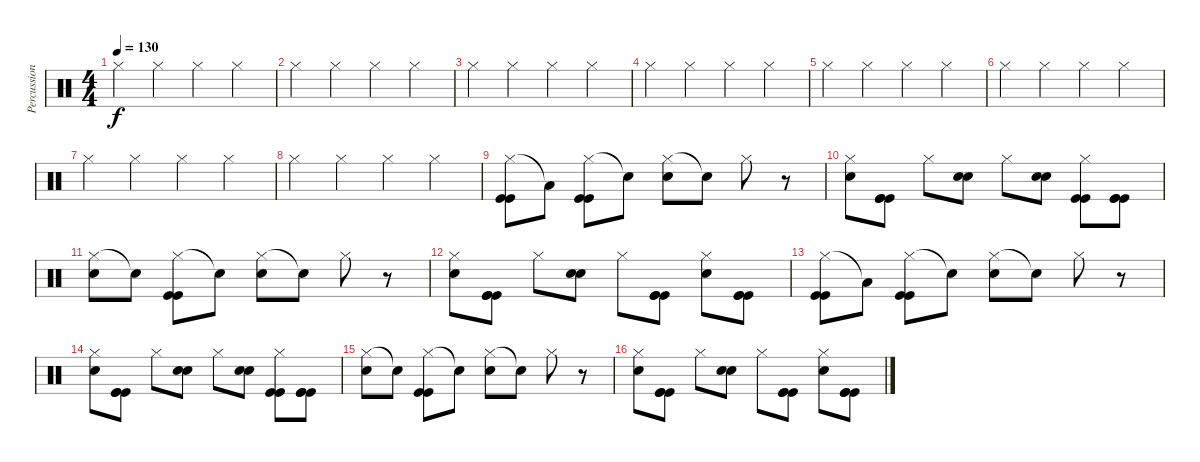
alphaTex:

\track ("Percussion" "Percussion") {instrument percussion}
\staff {score}
\articulation defaults
\ts (4 4)
\tempo 130
\clef neutral
\ks c "Hi-Hat (closed)".4{dy f} "Hi-Hat (closed)".4 "Hi-Hat (closed)".4 "Hi-Hat (closed)".4
|
"Hi-Hat (closed)".4 "Hi-Hat (closed)".4 "Hi-Hat (closed)".4 "Hi-Hat (closed)".4 |
"Hi-Hat (closed)".4 "Hi-Hat (closed)".4 "Hi-Hat (closed)".4 "Hi-Hat (closed)".4 |
"Hi-Hat (closed)".4 "Hi-Hat (closed)".4 "Hi-Hat (closed)".4 "Hi-Hat (closed)".4 |
"Hi-Hat (closed)".4 "Hi-Hat (closed)".4 "Hi-Hat (closed)".4 "Hi-Hat (closed)".4 |
"Hi-Hat (closed)".4 "Hi-Hat (closed)".4 "Hi-Hat (closed)".4 "Hi-Hat (closed)".4 |
"Hi-Hat (closed)".4 "Hi-Hat (closed)".4 "Hi-Hat (closed)".4 "Hi-Hat (closed)".4 |
"Hi-Hat (closed)".4 "Hi-Hat (closed)".4 "Hi-Hat (closed)".4 "Hi-Hat (closed)".4 |
("Hi-Hat (closed)" "Kick (hit)" "Kick (hit)").8 "Low Tom (hit)"{t}.8 ("Hi-Hat (closed)" "Kick (hit)" "Kick (hit)").8 "Snare (hit)"{t}.8 ("Hi-Hat (closed)" "Electric Snare (hit)").8 "Snare (hit)"{t}.8 "Hi-Hat (closed)".8 r.8 |
("Hi-Hat (closed)" "Electric Snare (hit)").8 ("Kick (hit)" "Kick (hit)" "Kick (hit)").8 "Hi-Hat (closed)".8 ("Electric Snare (hit)" "Electric Snare (hit)").8 "Hi-Hat (closed)".8 ("Electric Snare (hit)" "Electric Snare (hit)").8 ("Hi-Hat (closed)" "Kick (hit)" "Kick (hit)").8 ("Kick (hit)" "Kick (hit)" "Kick (hit)").8 |
("Hi-Hat (closed)" "Electric Snare (hit)").8 "Snare (hit)"{t}.8 ("Hi-Hat (closed)" "Kick (hit)" "Kick (hit)").8 "Snare (hit)"{t}.8 ("Hi-Hat (closed)" "Electric Snare (hit)").8 "Snare (hit)"{t}.8 "Hi-Hat (closed)".8 r.8 |
("Hi-Hat (closed)" "Electric Snare (hit)").8 ("Kick (hit)" "Kick (hit)" "Kick (hit)").8 "Hi-Hat (closed)".8 ("Electric Snare (hit)" "Electric Snare (hit)").8 "Hi-Hat (closed)".8 ("Kick (hit)" "Kick (hit)" "Kick (hit)").8 ("Hi-Hat (closed)" "Electric Snare (hit)").8 ("Kick (hit)" "Kick (hit)" "Kick (hit)").8 |
("Hi-Hat (closed)" "Kick (hit)" "Kick (hit)").8 "Low Tom (hit)"{t}.8 ("Hi-Hat (closed)" "Kick (hit)" "Kick (hit)").8 "Snare (hit)"{t}.8 ("Hi-Hat (closed)" "Electric Snare (hit)").8 "Snare (hit)"{t}.8 "Hi-Hat (closed)".8 r.8 |
("Hi-Hat (closed)" "Electric Snare (hit)").8 ("Kick (hit)" "Kick (hit)" "Kick (hit)").8 "Hi-Hat (closed)".8 ("Electric Snare (hit)" "Electric Snare (hit)").8 "Hi-Hat (closed)".8 ("Electric Snare (hit)" "Electric Snare (hit)").8 ("Hi-Hat (closed)" "Kick (hit)" "Kick (hit)").8 ("Kick (hit)" "Kick (hit)" "Kick (hit)").8 |
("Hi-Hat (closed)" "Electric Snare (hit)").8 "Snare (hit)"{t}.8 ("Hi-Hat (closed)" "Kick (hit)" "Kick (hit)").8 "Snare (hit)"{t}.8 ("Hi-Hat (closed)" "Electric Snare (hit)").8 "Snare (hit)"{t}.8 "Hi-Hat (closed)".8 r.8 |
("Hi-Hat (closed)" "Electric Snare (hit)").8 ("Kick (hit)" "Kick (hit)" "Kick (hit)").8 "Hi-Hat (closed)".8 ("Electric Snare (hit)" "Electric Snare (hit)").8 "Hi-Hat (closed)".8 ("Kick (hit)" "Kick (hit)" "Kick (hit)").8 ("Hi-Hat (closed)" "Electric Snare (hit)").8 ("Kick (hit)" "Kick (hit)" "Kick (hit)").8
